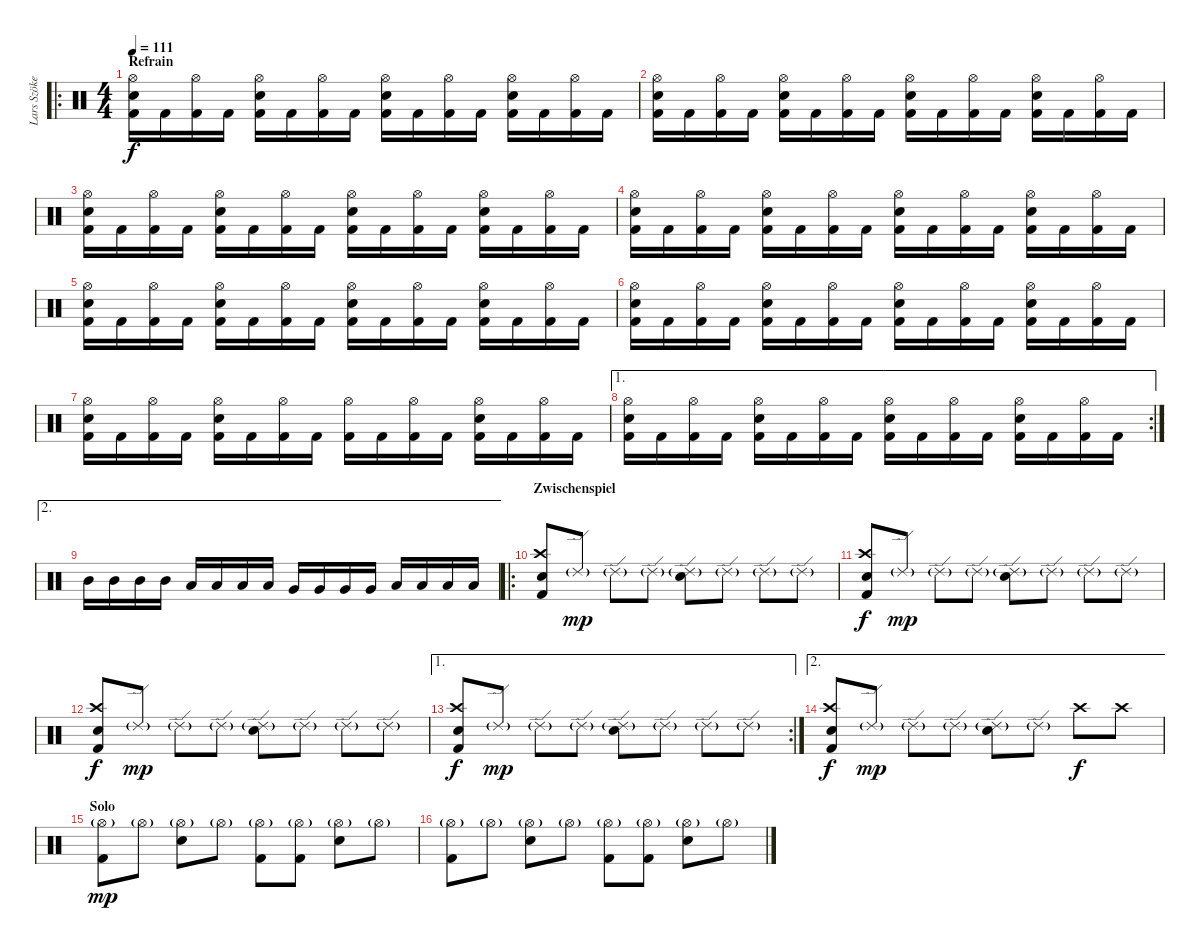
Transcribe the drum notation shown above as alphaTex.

\track ("Lars Szöke/Horgh" "Lars Szöke") {instrument percussion}
\staff {score}
\articulation defaults
\ro
\ts (4 4)
\section ("" "Refrain")
\tempo 111
\clef neutral
\ks c
("Hi-Hat (open)" "Snare (hit) 2" "Kick (hit) 2").16{dy f} "Kick (hit) 2".16 ("Hi-Hat (open)" "Kick (hit) 2").16 "Kick (hit) 2".16 ("Hi-Hat (open)" "Snare (hit) 2" "Kick (hit) 2").16 "Kick (hit) 2".16 ("Hi-Hat (open)" "Kick (hit) 2").16 "Kick (hit) 2".16 ("Hi-Hat (open)" "Snare (hit) 2" "Kick (hit) 2").16 "Kick (hit) 2".16 ("Hi-Hat (open)" "Kick (hit) 2").16 "Kick (hit) 2".16 ("Hi-Hat (open)" "Snare (hit) 2" "Kick (hit) 2").16 "Kick (hit) 2".16 ("Hi-Hat (open)" "Kick (hit) 2").16 "Kick (hit) 2".16 |
("Hi-Hat (open)" "Snare (hit) 2" "Kick (hit) 2").16 "Kick (hit) 2".16 ("Hi-Hat (open)" "Kick (hit) 2").16 "Kick (hit) 2".16 ("Hi-Hat (open)" "Snare (hit) 2" "Kick (hit) 2").16 "Kick (hit) 2".16 ("Hi-Hat (open)" "Kick (hit) 2").16 "Kick (hit) 2".16 ("Hi-Hat (open)" "Snare (hit) 2" "Kick (hit) 2").16 "Kick (hit) 2".16 ("Hi-Hat (open)" "Kick (hit) 2").16 "Kick (hit) 2".16 ("Hi-Hat (open)" "Snare (hit) 2" "Kick (hit) 2").16 "Kick (hit) 2".16 ("Hi-Hat (open)" "Kick (hit) 2").16 "Kick (hit) 2".16 |
("Hi-Hat (open)" "Snare (hit) 2" "Kick (hit) 2").16 "Kick (hit) 2".16 ("Hi-Hat (open)" "Kick (hit) 2").16 "Kick (hit) 2".16 ("Hi-Hat (open)" "Snare (hit) 2" "Kick (hit) 2").16 "Kick (hit) 2".16 ("Hi-Hat (open)" "Kick (hit) 2").16 "Kick (hit) 2".16 ("Hi-Hat (open)" "Snare (hit) 2" "Kick (hit) 2").16 "Kick (hit) 2".16 ("Hi-Hat (open)" "Kick (hit) 2").16 "Kick (hit) 2".16 ("Hi-Hat (open)" "Snare (hit) 2" "Kick (hit) 2").16 "Kick (hit) 2".16 ("Hi-Hat (open)" "Kick (hit) 2").16 "Kick (hit) 2".16 |
("Hi-Hat (open)" "Snare (hit) 2" "Kick (hit) 2").16 "Kick (hit) 2".16 ("Hi-Hat (open)" "Kick (hit) 2").16 "Kick (hit) 2".16 ("Hi-Hat (open)" "Snare (hit) 2" "Kick (hit) 2").16 "Kick (hit) 2".16 ("Hi-Hat (open)" "Kick (hit) 2").16 "Kick (hit) 2".16 ("Hi-Hat (open)" "Snare (hit) 2" "Kick (hit) 2").16 "Kick (hit) 2".16 ("Hi-Hat (open)" "Kick (hit) 2").16 "Kick (hit) 2".16 ("Hi-Hat (open)" "Snare (hit) 2" "Kick (hit) 2").16 "Kick (hit) 2".16 ("Hi-Hat (open)" "Kick (hit) 2").16 "Kick (hit) 2".16 |
("Hi-Hat (open)" "Snare (hit) 2" "Kick (hit) 2").16 "Kick (hit) 2".16 ("Hi-Hat (open)" "Kick (hit) 2").16 "Kick (hit) 2".16 ("Hi-Hat (open)" "Snare (hit) 2" "Kick (hit) 2").16 "Kick (hit) 2".16 ("Hi-Hat (open)" "Kick (hit) 2").16 "Kick (hit) 2".16 ("Hi-Hat (open)" "Snare (hit) 2" "Kick (hit) 2").16 "Kick (hit) 2".16 ("Hi-Hat (open)" "Kick (hit) 2").16 "Kick (hit) 2".16 ("Hi-Hat (open)" "Snare (hit) 2" "Kick (hit) 2").16 "Kick (hit) 2".16 ("Hi-Hat (open)" "Kick (hit) 2").16 "Kick (hit) 2".16 |
("Hi-Hat (open)" "Snare (hit) 2" "Kick (hit) 2").16 "Kick (hit) 2".16 ("Hi-Hat (open)" "Kick (hit) 2").16 "Kick (hit) 2".16 ("Hi-Hat (open)" "Snare (hit) 2" "Kick (hit) 2").16 "Kick (hit) 2".16 ("Hi-Hat (open)" "Kick (hit) 2").16 "Kick (hit) 2".16 ("Hi-Hat (open)" "Snare (hit) 2" "Kick (hit) 2").16 "Kick (hit) 2".16 ("Hi-Hat (open)" "Kick (hit) 2").16 "Kick (hit) 2".16 ("Hi-Hat (open)" "Snare (hit) 2" "Kick (hit) 2").16 "Kick (hit) 2".16 ("Hi-Hat (open)" "Kick (hit) 2").16 "Kick (hit) 2".16 |
("Hi-Hat (open)" "Snare (hit) 2" "Kick (hit) 2").16 "Kick (hit) 2".16 ("Hi-Hat (open)" "Kick (hit) 2").16 "Kick (hit) 2".16 ("Hi-Hat (open)" "Snare (hit) 2" "Kick (hit) 2").16 "Kick (hit) 2".16 ("Hi-Hat (open)" "Kick (hit) 2").16 "Kick (hit) 2".16 ("Hi-Hat (open)" "Kick (hit) 2").16 "Kick (hit) 2".16 ("Hi-Hat (open)" "Kick (hit) 2").16 "Kick (hit) 2".16 ("Hi-Hat (open)" "Snare (hit) 2" "Kick (hit) 2").16 "Kick (hit) 2".16 ("Hi-Hat (open)" "Kick (hit) 2").16 "Kick (hit) 2".16 |
\ae 1
\rc 2
("Hi-Hat (open)" "Snare (hit) 2" "Kick (hit) 2").16 "Kick (hit) 2".16 ("Hi-Hat (open)" "Kick (hit) 2").16 "Kick (hit) 2".16 ("Hi-Hat (open)" "Snare (hit) 2" "Kick (hit) 2").16 "Kick (hit) 2".16 ("Hi-Hat (open)" "Kick (hit) 2").16 "Kick (hit) 2".16 ("Hi-Hat (open)" "Snare (hit) 2" "Kick (hit) 2").16 "Kick (hit) 2".16 ("Hi-Hat (open)" "Kick (hit) 2").16 "Kick (hit) 2".16 ("Hi-Hat (open)" "Snare (hit) 2" "Kick (hit) 2").16 "Kick (hit) 2".16 ("Hi-Hat (open)" "Kick (hit) 2").16 "Kick (hit) 2".16 |
\ae 2 "Mid Tom (hit)".16 "Mid Tom (hit)".16 "Mid Tom (hit)".16 "Mid Tom (hit)".16 "Low Tom (hit)".16 "Low Tom (hit)".16 "Low Tom (hit)".16 "Low Tom (hit)".16 "Very Low Tom (hit)".16 "Very Low Tom (hit)".16 "Very Low Tom (hit)".16 "Very Low Tom (hit)".16 "Low Floor Tom (hit)".16 "Low Floor Tom (hit)".16 "Low Floor Tom (hit)".16 "Low Floor Tom (hit)".16
|
\ro
\section ("" "Zwischenspiel")
("Crash high (hit)" "Electric Snare (hit)" "Kick (hit) 2").8 "Ride (edge) 2"{g}.8{dy mp} "Ride (edge) 2"{g}.8 "Ride (edge) 2"{g}.8 ("Ride (edge) 2"{g} "Snare (hit) 2").8 "Ride (edge) 2"{g}.8 "Ride (edge) 2"{g}.8 "Ride (edge) 2"{g}.8 |
("Crash high (hit)" "Electric Snare (hit)" "Kick (hit) 2").8{dy f} "Ride (edge) 2"{g}.8{dy mp} "Ride (edge) 2"{g}.8 "Ride (edge) 2"{g}.8 ("Ride (edge) 2"{g} "Snare (hit) 2").8 "Ride (edge) 2"{g}.8 "Ride (edge) 2"{g}.8 "Ride (edge) 2"{g}.8 |
("Crash high (hit)" "Electric Snare (hit)" "Kick (hit) 2").8{dy f} "Ride (edge) 2"{g}.8{dy mp} "Ride (edge) 2"{g}.8 "Ride (edge) 2"{g}.8 ("Ride (edge) 2"{g} "Snare (hit) 2").8 "Ride (edge) 2"{g}.8 "Ride (edge) 2"{g}.8 "Ride (edge) 2"{g}.8 |
\ae 1
\rc 2
("Crash high (hit)" "Electric Snare (hit)" "Kick (hit) 2").8{dy f} "Ride (edge) 2"{g}.8{dy mp} "Ride (edge) 2"{g}.8 "Ride (edge) 2"{g}.8 ("Ride (edge) 2"{g} "Snare (hit) 2").8 "Ride (edge) 2"{g}.8 "Ride (edge) 2"{g}.8 "Ride (edge) 2"{g}.8 |
\ae 2
("Crash high (hit)" "Electric Snare (hit)" "Kick (hit) 2").8{dy f} "Ride (edge) 2"{g}.8{dy mp} "Ride (edge) 2"{g}.8 "Ride (edge) 2"{g}.8 ("Ride (edge) 2"{g} "Snare (hit) 2").8 "Ride (edge) 2"{g}.8 "Crash high (hit)".8{dy f} "Crash high (hit)".8 |
\section ("" "Solo")
("Hi-Hat (open)"{g} "Kick (hit) 2").8{dy mp} "Hi-Hat (open)"{g}.8 ("Hi-Hat (open)"{g} "Snare (hit) 2").8 "Hi-Hat (open)"{g}.8 ("Hi-Hat (open)"{g} "Kick (hit) 2").8 ("Hi-Hat (open)"{g} "Kick (hit) 2").8 ("Hi-Hat (open)"{g} "Snare (hit) 2").8 "Hi-Hat (open)"{g}.8 |
("Hi-Hat (open)"{g} "Kick (hit) 2").8 "Hi-Hat (open)"{g}.8 ("Hi-Hat (open)"{g} "Snare (hit) 2").8 "Hi-Hat (open)"{g}.8 ("Hi-Hat (open)"{g} "Kick (hit) 2").8 ("Hi-Hat (open)"{g} "Kick (hit) 2").8 ("Hi-Hat (open)"{g} "Snare (hit) 2").8 "Hi-Hat (open)"{g}.8
